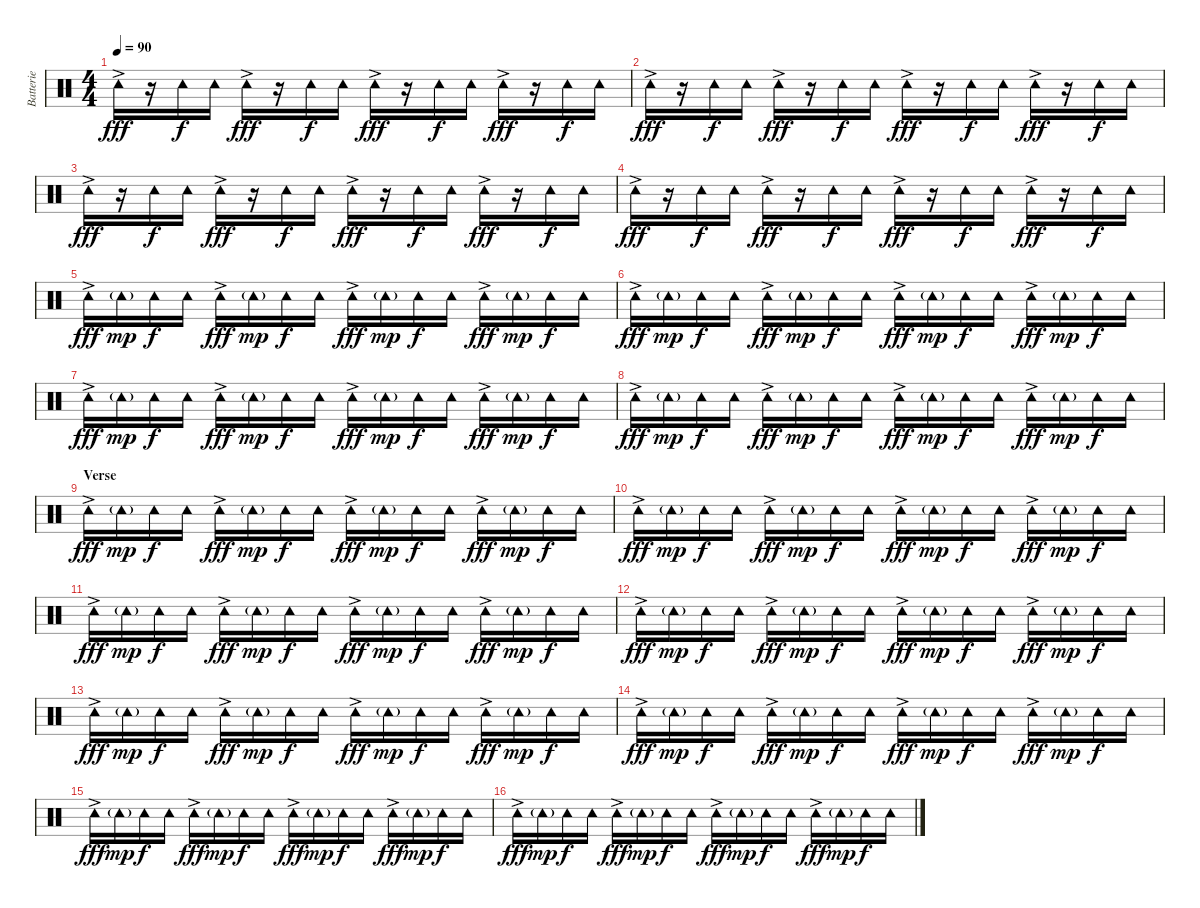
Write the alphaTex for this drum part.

\track ("Batterie" "Batterie") {instrument percussion}
\staff {score}
\articulation defaults
\ts (4 4)
\tempo 90
\clef neutral
\ks c "Tambourine (hit)"{ac}.16{dy fff}
r.16 "Tambourine (hit)".16{dy f} "Tambourine (hit)".16 "Tambourine (hit)"{ac}.16{dy fff} r.16 "Tambourine (hit)".16{dy f} "Tambourine (hit)".16 "Tambourine (hit)"{ac}.16{dy fff} r.16 "Tambourine (hit)".16{dy f} "Tambourine (hit)".16 "Tambourine (hit)"{ac}.16{dy fff} r.16 "Tambourine (hit)".16{dy f} "Tambourine (hit)".16 |
"Tambourine (hit)"{ac}.16{dy fff} r.16 "Tambourine (hit)".16{dy f} "Tambourine (hit)".16 "Tambourine (hit)"{ac}.16{dy fff} r.16 "Tambourine (hit)".16{dy f} "Tambourine (hit)".16 "Tambourine (hit)"{ac}.16{dy fff} r.16 "Tambourine (hit)".16{dy f} "Tambourine (hit)".16 "Tambourine (hit)"{ac}.16{dy fff} r.16 "Tambourine (hit)".16{dy f} "Tambourine (hit)".16 |
"Tambourine (hit)"{ac}.16{dy fff} r.16 "Tambourine (hit)".16{dy f} "Tambourine (hit)".16 "Tambourine (hit)"{ac}.16{dy fff} r.16 "Tambourine (hit)".16{dy f} "Tambourine (hit)".16 "Tambourine (hit)"{ac}.16{dy fff} r.16 "Tambourine (hit)".16{dy f} "Tambourine (hit)".16 "Tambourine (hit)"{ac}.16{dy fff} r.16 "Tambourine (hit)".16{dy f} "Tambourine (hit)".16 |
"Tambourine (hit)"{ac}.16{dy fff} r.16 "Tambourine (hit)".16{dy f} "Tambourine (hit)".16 "Tambourine (hit)"{ac}.16{dy fff} r.16 "Tambourine (hit)".16{dy f} "Tambourine (hit)".16 "Tambourine (hit)"{ac}.16{dy fff} r.16 "Tambourine (hit)".16{dy f} "Tambourine (hit)".16 "Tambourine (hit)"{ac}.16{dy fff} r.16 "Tambourine (hit)".16{dy f} "Tambourine (hit)".16 |
"Tambourine (hit)"{ac}.16{dy fff} "Tambourine (hit)"{g}.16{dy mp} "Tambourine (hit)".16{dy f} "Tambourine (hit)".16 "Tambourine (hit)"{ac}.16{dy fff} "Tambourine (hit)"{g}.16{dy mp} "Tambourine (hit)".16{dy f} "Tambourine (hit)".16 "Tambourine (hit)"{ac}.16{dy fff} "Tambourine (hit)"{g}.16{dy mp} "Tambourine (hit)".16{dy f} "Tambourine (hit)".16 "Tambourine (hit)"{ac}.16{dy fff} "Tambourine (hit)"{g}.16{dy mp} "Tambourine (hit)".16{dy f} "Tambourine (hit)".16 |
"Tambourine (hit)"{ac}.16{dy fff} "Tambourine (hit)"{g}.16{dy mp} "Tambourine (hit)".16{dy f} "Tambourine (hit)".16 "Tambourine (hit)"{ac}.16{dy fff} "Tambourine (hit)"{g}.16{dy mp} "Tambourine (hit)".16{dy f} "Tambourine (hit)".16 "Tambourine (hit)"{ac}.16{dy fff} "Tambourine (hit)"{g}.16{dy mp} "Tambourine (hit)".16{dy f} "Tambourine (hit)".16 "Tambourine (hit)"{ac}.16{dy fff} "Tambourine (hit)"{g}.16{dy mp} "Tambourine (hit)".16{dy f} "Tambourine (hit)".16 |
"Tambourine (hit)"{ac}.16{dy fff} "Tambourine (hit)"{g}.16{dy mp} "Tambourine (hit)".16{dy f} "Tambourine (hit)".16 "Tambourine (hit)"{ac}.16{dy fff} "Tambourine (hit)"{g}.16{dy mp} "Tambourine (hit)".16{dy f} "Tambourine (hit)".16 "Tambourine (hit)"{ac}.16{dy fff} "Tambourine (hit)"{g}.16{dy mp} "Tambourine (hit)".16{dy f} "Tambourine (hit)".16 "Tambourine (hit)"{ac}.16{dy fff} "Tambourine (hit)"{g}.16{dy mp} "Tambourine (hit)".16{dy f} "Tambourine (hit)".16 |
"Tambourine (hit)"{ac}.16{dy fff} "Tambourine (hit)"{g}.16{dy mp} "Tambourine (hit)".16{dy f} "Tambourine (hit)".16 "Tambourine (hit)"{ac}.16{dy fff} "Tambourine (hit)"{g}.16{dy mp} "Tambourine (hit)".16{dy f} "Tambourine (hit)".16 "Tambourine (hit)"{ac}.16{dy fff} "Tambourine (hit)"{g}.16{dy mp} "Tambourine (hit)".16{dy f} "Tambourine (hit)".16 "Tambourine (hit)"{ac}.16{dy fff} "Tambourine (hit)"{g}.16{dy mp} "Tambourine (hit)".16{dy f} "Tambourine (hit)".16 |
\section ("" "Verse")
"Tambourine (hit)"{ac}.16{dy fff} "Tambourine (hit)"{g}.16{dy mp} "Tambourine (hit)".16{dy f} "Tambourine (hit)".16 "Tambourine (hit)"{ac}.16{dy fff} "Tambourine (hit)"{g}.16{dy mp} "Tambourine (hit)".16{dy f} "Tambourine (hit)".16 "Tambourine (hit)"{ac}.16{dy fff} "Tambourine (hit)"{g}.16{dy mp} "Tambourine (hit)".16{dy f} "Tambourine (hit)".16 "Tambourine (hit)"{ac}.16{dy fff} "Tambourine (hit)"{g}.16{dy mp} "Tambourine (hit)".16{dy f} "Tambourine (hit)".16 |
"Tambourine (hit)"{ac}.16{dy fff} "Tambourine (hit)"{g}.16{dy mp} "Tambourine (hit)".16{dy f} "Tambourine (hit)".16 "Tambourine (hit)"{ac}.16{dy fff} "Tambourine (hit)"{g}.16{dy mp} "Tambourine (hit)".16{dy f} "Tambourine (hit)".16 "Tambourine (hit)"{ac}.16{dy fff} "Tambourine (hit)"{g}.16{dy mp} "Tambourine (hit)".16{dy f} "Tambourine (hit)".16 "Tambourine (hit)"{ac}.16{dy fff} "Tambourine (hit)"{g}.16{dy mp} "Tambourine (hit)".16{dy f} "Tambourine (hit)".16 |
"Tambourine (hit)"{ac}.16{dy fff} "Tambourine (hit)"{g}.16{dy mp} "Tambourine (hit)".16{dy f} "Tambourine (hit)".16 "Tambourine (hit)"{ac}.16{dy fff} "Tambourine (hit)"{g}.16{dy mp} "Tambourine (hit)".16{dy f} "Tambourine (hit)".16 "Tambourine (hit)"{ac}.16{dy fff} "Tambourine (hit)"{g}.16{dy mp} "Tambourine (hit)".16{dy f} "Tambourine (hit)".16 "Tambourine (hit)"{ac}.16{dy fff} "Tambourine (hit)"{g}.16{dy mp} "Tambourine (hit)".16{dy f} "Tambourine (hit)".16 |
"Tambourine (hit)"{ac}.16{dy fff} "Tambourine (hit)"{g}.16{dy mp} "Tambourine (hit)".16{dy f} "Tambourine (hit)".16 "Tambourine (hit)"{ac}.16{dy fff} "Tambourine (hit)"{g}.16{dy mp} "Tambourine (hit)".16{dy f} "Tambourine (hit)".16 "Tambourine (hit)"{ac}.16{dy fff} "Tambourine (hit)"{g}.16{dy mp} "Tambourine (hit)".16{dy f} "Tambourine (hit)".16 "Tambourine (hit)"{ac}.16{dy fff} "Tambourine (hit)"{g}.16{dy mp} "Tambourine (hit)".16{dy f} "Tambourine (hit)".16 |
"Tambourine (hit)"{ac}.16{dy fff} "Tambourine (hit)"{g}.16{dy mp} "Tambourine (hit)".16{dy f} "Tambourine (hit)".16 "Tambourine (hit)"{ac}.16{dy fff} "Tambourine (hit)"{g}.16{dy mp} "Tambourine (hit)".16{dy f} "Tambourine (hit)".16 "Tambourine (hit)"{ac}.16{dy fff} "Tambourine (hit)"{g}.16{dy mp} "Tambourine (hit)".16{dy f} "Tambourine (hit)".16 "Tambourine (hit)"{ac}.16{dy fff} "Tambourine (hit)"{g}.16{dy mp} "Tambourine (hit)".16{dy f} "Tambourine (hit)".16 |
"Tambourine (hit)"{ac}.16{dy fff} "Tambourine (hit)"{g}.16{dy mp} "Tambourine (hit)".16{dy f} "Tambourine (hit)".16 "Tambourine (hit)"{ac}.16{dy fff} "Tambourine (hit)"{g}.16{dy mp} "Tambourine (hit)".16{dy f} "Tambourine (hit)".16 "Tambourine (hit)"{ac}.16{dy fff} "Tambourine (hit)"{g}.16{dy mp} "Tambourine (hit)".16{dy f} "Tambourine (hit)".16 "Tambourine (hit)"{ac}.16{dy fff} "Tambourine (hit)"{g}.16{dy mp} "Tambourine (hit)".16{dy f} "Tambourine (hit)".16 |
"Tambourine (hit)"{ac}.16{dy fff} "Tambourine (hit)"{g}.16{dy mp} "Tambourine (hit)".16{dy f} "Tambourine (hit)".16 "Tambourine (hit)"{ac}.16{dy fff} "Tambourine (hit)"{g}.16{dy mp} "Tambourine (hit)".16{dy f} "Tambourine (hit)".16 "Tambourine (hit)"{ac}.16{dy fff} "Tambourine (hit)"{g}.16{dy mp} "Tambourine (hit)".16{dy f} "Tambourine (hit)".16 "Tambourine (hit)"{ac}.16{dy fff} "Tambourine (hit)"{g}.16{dy mp} "Tambourine (hit)".16{dy f} "Tambourine (hit)".16 |
"Tambourine (hit)"{ac}.16{dy fff} "Tambourine (hit)"{g}.16{dy mp} "Tambourine (hit)".16{dy f} "Tambourine (hit)".16 "Tambourine (hit)"{ac}.16{dy fff} "Tambourine (hit)"{g}.16{dy mp} "Tambourine (hit)".16{dy f} "Tambourine (hit)".16 "Tambourine (hit)"{ac}.16{dy fff} "Tambourine (hit)"{g}.16{dy mp} "Tambourine (hit)".16{dy f} "Tambourine (hit)".16 "Tambourine (hit)"{ac}.16{dy fff} "Tambourine (hit)"{g}.16{dy mp} "Tambourine (hit)".16{dy f} "Tambourine (hit)".16
